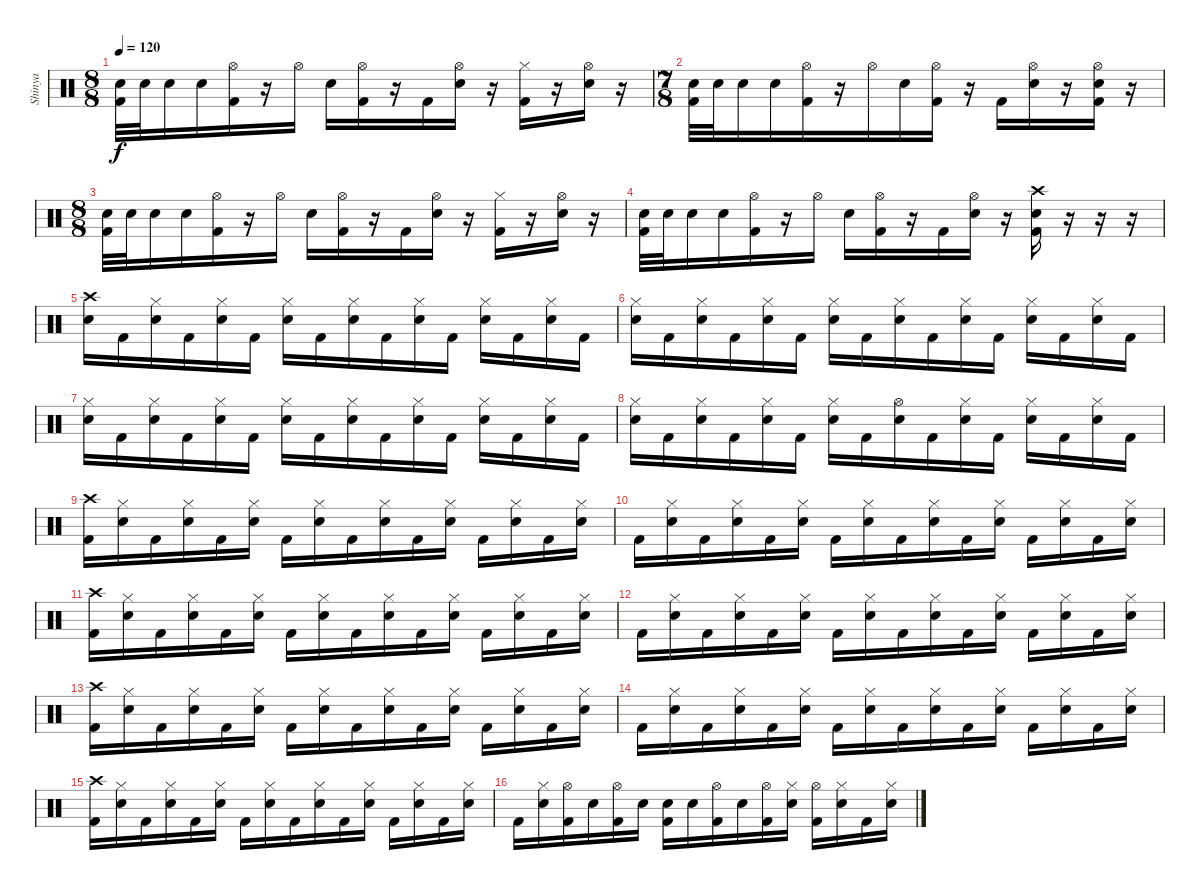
\track ("Shinya" "Shinya") {instrument percussion}
\staff {score}
\articulation defaults
\ts (8 8)
\tempo 120
\clef neutral
\ks c
("Snare (hit) 2" "Kick (hit) 2").32{dy f} "Snare (hit) 2".32 "Snare (hit) 2".16 "Snare (hit) 2".16 ("Hi-Hat (open)" "Kick (hit) 2").16 r.16 "Hi-Hat (open)".16 "Snare (hit) 2".16 ("Hi-Hat (open)" "Kick (hit) 2").16 r.16 "Kick (hit) 2".16 ("Hi-Hat (open)" "Snare (hit) 2").16 r.16 ("Hi-Hat (closed)" "Kick (hit) 2").16 r.16 ("Hi-Hat (open)" "Snare (hit) 2").16 r.16 |
\ts (7 8)
("Snare (hit) 2" "Kick (hit) 2").32 "Snare (hit) 2".32 "Snare (hit) 2".16 "Snare (hit) 2".16 ("Hi-Hat (open)" "Kick (hit) 2").16 r.16 "Hi-Hat (open)".16 "Snare (hit) 2".16 ("Hi-Hat (open)" "Kick (hit) 2").16 r.16 "Kick (hit) 2".16 ("Hi-Hat (open)" "Snare (hit) 2").16 r.16 ("Hi-Hat (open)" "Snare (hit) 2" "Kick (hit) 2").16 r.16 |
\ts (8 8)
("Snare (hit) 2" "Kick (hit) 2").32 "Snare (hit) 2".32 "Snare (hit) 2".16 "Snare (hit) 2".16 ("Hi-Hat (open)" "Kick (hit) 2").16 r.16 "Hi-Hat (open)".16 "Snare (hit) 2".16 ("Hi-Hat (open)" "Kick (hit) 2").16 r.16 "Kick (hit) 2".16 ("Hi-Hat (open)" "Snare (hit) 2").16 r.16 ("Hi-Hat (closed)" "Kick (hit) 2").16 r.16 ("Hi-Hat (open)" "Snare (hit) 2").16 r.16 |
("Snare (hit) 2" "Kick (hit) 2").32 "Snare (hit) 2".32 "Snare (hit) 2".16 "Snare (hit) 2".16 ("Hi-Hat (open)" "Kick (hit) 2").16 r.16 "Hi-Hat (open)".16 "Snare (hit) 2".16 ("Hi-Hat (open)" "Kick (hit) 2").16 r.16 "Kick (hit) 2".16 ("Hi-Hat (open)" "Snare (hit) 2").16 r.16 ("Crash high (hit)" "Snare (hit) 2" "Kick (hit) 2").16 r.16 r.16 r.16 |
("Crash high (hit)" "Snare (hit) 2").16 "Kick (hit) 2".16 ("Hi-Hat (closed)" "Snare (hit) 2").16 "Kick (hit) 2".16 ("Hi-Hat (closed)" "Snare (hit) 2").16 "Kick (hit) 2".16 ("Hi-Hat (closed)" "Snare (hit) 2").16 "Kick (hit) 2".16 ("Hi-Hat (closed)" "Snare (hit) 2").16 "Kick (hit) 2".16 ("Hi-Hat (closed)" "Snare (hit) 2").16 "Kick (hit) 2".16 ("Hi-Hat (closed)" "Snare (hit) 2").16 "Kick (hit) 2".16 ("Hi-Hat (closed)" "Snare (hit) 2").16 "Kick (hit) 2".16 |
("Hi-Hat (closed)" "Snare (hit) 2").16 "Kick (hit) 2".16 ("Hi-Hat (closed)" "Snare (hit) 2").16 "Kick (hit) 2".16 ("Hi-Hat (closed)" "Snare (hit) 2").16 "Kick (hit) 2".16 ("Hi-Hat (closed)" "Snare (hit) 2").16 "Kick (hit) 2".16 ("Hi-Hat (closed)" "Snare (hit) 2").16 "Kick (hit) 2".16 ("Hi-Hat (closed)" "Snare (hit) 2").16 "Kick (hit) 2".16 ("Hi-Hat (closed)" "Snare (hit) 2").16 "Kick (hit) 2".16 ("Hi-Hat (closed)" "Snare (hit) 2").16 "Kick (hit) 2".16 |
("Hi-Hat (closed)" "Snare (hit) 2").16 "Kick (hit) 2".16 ("Hi-Hat (closed)" "Snare (hit) 2").16 "Kick (hit) 2".16 ("Hi-Hat (closed)" "Snare (hit) 2").16 "Kick (hit) 2".16 ("Hi-Hat (closed)" "Snare (hit) 2").16 "Kick (hit) 2".16 ("Hi-Hat (closed)" "Snare (hit) 2").16 "Kick (hit) 2".16 ("Hi-Hat (closed)" "Snare (hit) 2").16 "Kick (hit) 2".16 ("Hi-Hat (closed)" "Snare (hit) 2").16 "Kick (hit) 2".16 ("Hi-Hat (closed)" "Snare (hit) 2").16 "Kick (hit) 2".16 |
("Hi-Hat (closed)" "Snare (hit) 2").16 "Kick (hit) 2".16 ("Hi-Hat (closed)" "Snare (hit) 2").16 "Kick (hit) 2".16 ("Hi-Hat (closed)" "Snare (hit) 2").16 "Kick (hit) 2".16 ("Hi-Hat (closed)" "Snare (hit) 2").16 "Kick (hit) 2".16 ("Hi-Hat (open)" "Snare (hit) 2").16 "Kick (hit) 2".16 ("Hi-Hat (closed)" "Snare (hit) 2").16 "Kick (hit) 2".16 ("Hi-Hat (closed)" "Snare (hit) 2").16 "Kick (hit) 2".16 ("Hi-Hat (closed)" "Snare (hit) 2").16 "Kick (hit) 2".16 |
("Crash high (hit)" "Kick (hit) 2").16 ("Hi-Hat (closed)" "Snare (hit) 2").16 "Kick (hit) 2".16 ("Hi-Hat (closed)" "Snare (hit) 2").16 "Kick (hit) 2".16 ("Hi-Hat (closed)" "Snare (hit) 2").16 "Kick (hit) 2".16 ("Hi-Hat (closed)" "Snare (hit) 2").16 "Kick (hit) 2".16 ("Hi-Hat (closed)" "Snare (hit) 2").16 "Kick (hit) 2".16 ("Hi-Hat (closed)" "Snare (hit) 2").16 "Kick (hit) 2".16 ("Hi-Hat (closed)" "Snare (hit) 2").16 "Kick (hit) 2".16 ("Hi-Hat (closed)" "Snare (hit) 2").16 |
"Kick (hit) 2".16 ("Hi-Hat (closed)" "Snare (hit) 2").16 "Kick (hit) 2".16 ("Hi-Hat (closed)" "Snare (hit) 2").16 "Kick (hit) 2".16 ("Hi-Hat (closed)" "Snare (hit) 2").16 "Kick (hit) 2".16 ("Hi-Hat (closed)" "Snare (hit) 2").16 "Kick (hit) 2".16 ("Hi-Hat (closed)" "Snare (hit) 2").16 "Kick (hit) 2".16 ("Hi-Hat (closed)" "Snare (hit) 2").16 "Kick (hit) 2".16 ("Hi-Hat (closed)" "Snare (hit) 2").16 "Kick (hit) 2".16 ("Hi-Hat (closed)" "Snare (hit) 2").16 |
("Crash high (hit)" "Kick (hit) 2").16 ("Hi-Hat (closed)" "Snare (hit) 2").16 "Kick (hit) 2".16 ("Hi-Hat (closed)" "Snare (hit) 2").16 "Kick (hit) 2".16 ("Hi-Hat (closed)" "Snare (hit) 2").16 "Kick (hit) 2".16 ("Hi-Hat (closed)" "Snare (hit) 2").16 "Kick (hit) 2".16 ("Hi-Hat (closed)" "Snare (hit) 2").16 "Kick (hit) 2".16 ("Hi-Hat (closed)" "Snare (hit) 2").16 "Kick (hit) 2".16 ("Hi-Hat (closed)" "Snare (hit) 2").16 "Kick (hit) 2".16 ("Hi-Hat (closed)" "Snare (hit) 2").16 |
"Kick (hit) 2".16 ("Hi-Hat (closed)" "Snare (hit) 2").16 "Kick (hit) 2".16 ("Hi-Hat (closed)" "Snare (hit) 2").16 "Kick (hit) 2".16 ("Hi-Hat (closed)" "Snare (hit) 2").16 "Kick (hit) 2".16 ("Hi-Hat (closed)" "Snare (hit) 2").16 "Kick (hit) 2".16 ("Hi-Hat (closed)" "Snare (hit) 2").16 "Kick (hit) 2".16 ("Hi-Hat (closed)" "Snare (hit) 2").16 "Kick (hit) 2".16 ("Hi-Hat (closed)" "Snare (hit) 2").16 "Kick (hit) 2".16 ("Hi-Hat (closed)" "Snare (hit) 2").16 |
("Crash high (hit)" "Kick (hit) 2").16 ("Hi-Hat (closed)" "Snare (hit) 2").16 "Kick (hit) 2".16 ("Hi-Hat (closed)" "Snare (hit) 2").16 "Kick (hit) 2".16 ("Hi-Hat (closed)" "Snare (hit) 2").16 "Kick (hit) 2".16 ("Hi-Hat (closed)" "Snare (hit) 2").16 "Kick (hit) 2".16 ("Hi-Hat (closed)" "Snare (hit) 2").16 "Kick (hit) 2".16 ("Hi-Hat (closed)" "Snare (hit) 2").16 "Kick (hit) 2".16 ("Hi-Hat (closed)" "Snare (hit) 2").16 "Kick (hit) 2".16 ("Hi-Hat (closed)" "Snare (hit) 2").16 |
"Kick (hit) 2".16 ("Hi-Hat (closed)" "Snare (hit) 2").16 "Kick (hit) 2".16 ("Hi-Hat (closed)" "Snare (hit) 2").16 "Kick (hit) 2".16 ("Hi-Hat (closed)" "Snare (hit) 2").16 "Kick (hit) 2".16 ("Hi-Hat (closed)" "Snare (hit) 2").16 "Kick (hit) 2".16 ("Hi-Hat (closed)" "Snare (hit) 2").16 "Kick (hit) 2".16 ("Hi-Hat (closed)" "Snare (hit) 2").16 "Kick (hit) 2".16 ("Hi-Hat (closed)" "Snare (hit) 2").16 "Kick (hit) 2".16 ("Hi-Hat (closed)" "Snare (hit) 2").16 |
("Crash high (hit)" "Kick (hit) 2").16 ("Hi-Hat (closed)" "Snare (hit) 2").16 "Kick (hit) 2".16 ("Hi-Hat (closed)" "Snare (hit) 2").16 "Kick (hit) 2".16 ("Hi-Hat (closed)" "Snare (hit) 2").16 "Kick (hit) 2".16 ("Hi-Hat (closed)" "Snare (hit) 2").16 "Kick (hit) 2".16 ("Hi-Hat (closed)" "Snare (hit) 2").16 "Kick (hit) 2".16 ("Hi-Hat (closed)" "Snare (hit) 2").16 "Kick (hit) 2".16 ("Hi-Hat (closed)" "Snare (hit) 2").16 "Kick (hit) 2".16 ("Hi-Hat (closed)" "Snare (hit) 2").16 |
"Kick (hit) 2".16 ("Hi-Hat (closed)" "Snare (hit) 2").16 ("Hi-Hat (open)" "Kick (hit) 2").16 "Snare (hit) 2".16 ("Hi-Hat (open)" "Kick (hit) 2").16 "Snare (hit) 2".16 ("Snare (hit) 2" "Kick (hit) 2").16 "Snare (hit) 2".16 ("Hi-Hat (open)" "Kick (hit) 2").16 "Snare (hit) 2".16 ("Hi-Hat (open)" "Kick (hit) 2").16 ("Hi-Hat (closed)" "Snare (hit) 2").16 ("Hi-Hat (open)" "Kick (hit) 2").16 ("Hi-Hat (closed)" "Snare (hit) 2").16 "Kick (hit) 2".16 ("Hi-Hat (closed)" "Snare (hit) 2").16
